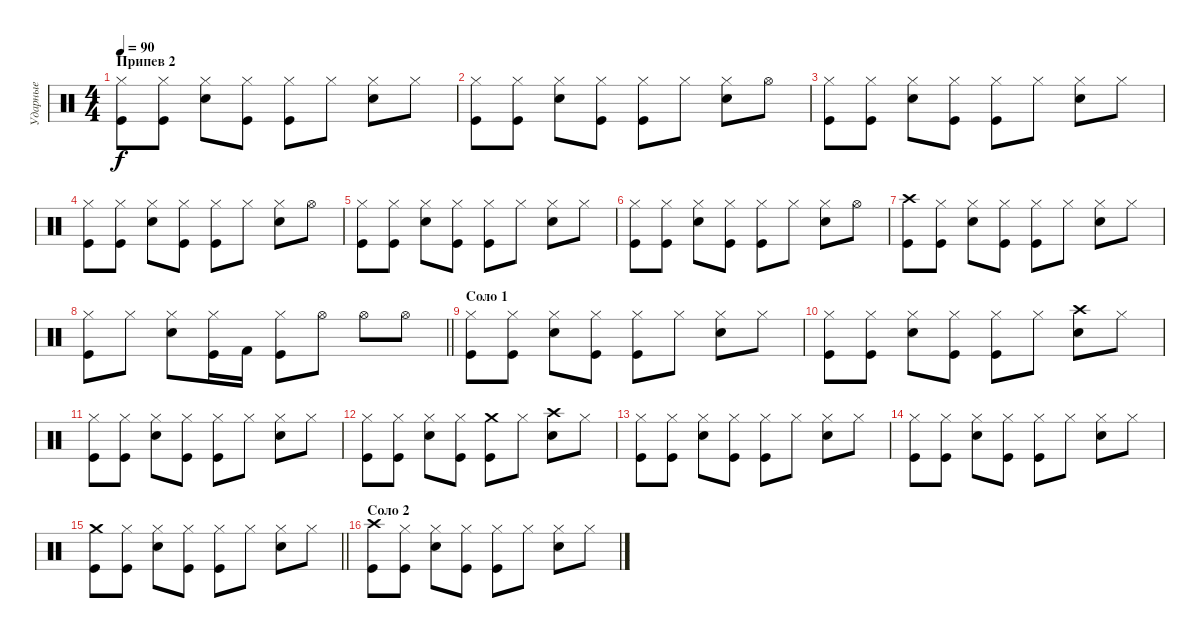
\track ("Ударные" "Ударные") {instrument percussion}
\staff {score}
\articulation defaults
\ts (4 4)
\section ("" "Припев 2")
\tempo 90
\clef neutral
\ks c
("Hi-Hat (closed)" "Kick (hit)").8{dy f} ("Hi-Hat (closed)" "Kick (hit)").8 ("Hi-Hat (closed)" "Snare (hit) 2").8 ("Hi-Hat (closed)" "Kick (hit)").8 ("Hi-Hat (closed)" "Kick (hit)").8 "Hi-Hat (closed)".8 ("Hi-Hat (closed)" "Snare (hit) 2").8 "Hi-Hat (closed)".8 |
("Hi-Hat (closed)" "Kick (hit)").8 ("Hi-Hat (closed)" "Kick (hit)").8 ("Hi-Hat (closed)" "Snare (hit) 2").8 ("Hi-Hat (closed)" "Kick (hit)").8 ("Hi-Hat (closed)" "Kick (hit)").8 "Hi-Hat (closed)".8 ("Hi-Hat (closed)" "Snare (hit) 2").8 "Hi-Hat (open)".8 |
("Hi-Hat (closed)" "Kick (hit)").8 ("Hi-Hat (closed)" "Kick (hit)").8 ("Hi-Hat (closed)" "Snare (hit) 2").8 ("Hi-Hat (closed)" "Kick (hit)").8 ("Hi-Hat (closed)" "Kick (hit)").8 "Hi-Hat (closed)".8 ("Hi-Hat (closed)" "Snare (hit) 2").8 "Hi-Hat (closed)".8 |
("Hi-Hat (closed)" "Kick (hit)").8 ("Hi-Hat (closed)" "Kick (hit)").8 ("Hi-Hat (closed)" "Snare (hit) 2").8 ("Hi-Hat (closed)" "Kick (hit)").8 ("Hi-Hat (closed)" "Kick (hit)").8 "Hi-Hat (closed)".8 ("Hi-Hat (closed)" "Snare (hit) 2").8 "Hi-Hat (open)".8 |
("Hi-Hat (closed)" "Kick (hit)").8 ("Hi-Hat (closed)" "Kick (hit)").8 ("Hi-Hat (closed)" "Snare (hit) 2").8 ("Hi-Hat (closed)" "Kick (hit)").8 ("Hi-Hat (closed)" "Kick (hit)").8 "Hi-Hat (closed)".8 ("Hi-Hat (closed)" "Snare (hit) 2").8 "Hi-Hat (closed)".8 |
("Hi-Hat (closed)" "Kick (hit)").8 ("Hi-Hat (closed)" "Kick (hit)").8 ("Hi-Hat (closed)" "Snare (hit) 2").8 ("Hi-Hat (closed)" "Kick (hit)").8 ("Hi-Hat (closed)" "Kick (hit)").8 "Hi-Hat (closed)".8 ("Hi-Hat (closed)" "Snare (hit) 2").8 "Hi-Hat (open)".8 |
("Crash high (hit)" "Kick (hit)").8 ("Hi-Hat (closed)" "Kick (hit)").8 ("Hi-Hat (closed)" "Snare (hit) 2").8 ("Hi-Hat (closed)" "Kick (hit)").8 ("Hi-Hat (closed)" "Kick (hit)").8 "Hi-Hat (closed)".8 ("Hi-Hat (closed)" "Snare (hit) 2").8 "Hi-Hat (closed)".8 |
\barLineRight lightlight
("Kick (hit)" "Hi-Hat (closed)").8 "Hi-Hat (closed)".8 ("Snare (hit) 2" "Hi-Hat (closed)").8 ("Kick (hit)" "Hi-Hat (closed)").16 "Kick (hit) 2".16 ("Kick (hit)" "Hi-Hat (closed)").8 "Hi-Hat (open)".8 "Hi-Hat (open)".8 "Hi-Hat (open)".8 |
\section ("" "Соло 1")
("Hi-Hat (closed)" "Kick (hit)").8 ("Hi-Hat (closed)" "Kick (hit)").8 ("Hi-Hat (closed)" "Snare (hit) 2").8 ("Hi-Hat (closed)" "Kick (hit)").8 ("Hi-Hat (closed)" "Kick (hit)").8 "Hi-Hat (closed)".8 ("Hi-Hat (closed)" "Snare (hit) 2").8 "Hi-Hat (closed)".8 |
("Hi-Hat (closed)" "Kick (hit)").8 ("Hi-Hat (closed)" "Kick (hit)").8 ("Hi-Hat (closed)" "Snare (hit) 2").8 ("Hi-Hat (closed)" "Kick (hit)").8 ("Hi-Hat (closed)" "Kick (hit)").8 "Hi-Hat (closed)".8 ("Crash high (hit)" "Snare (hit) 2").8 "Hi-Hat (closed)".8 |
("Hi-Hat (closed)" "Kick (hit)").8 ("Hi-Hat (closed)" "Kick (hit)").8 ("Hi-Hat (closed)" "Snare (hit) 2").8 ("Hi-Hat (closed)" "Kick (hit)").8 ("Hi-Hat (closed)" "Kick (hit)").8 "Hi-Hat (closed)".8 ("Hi-Hat (closed)" "Snare (hit) 2").8 "Hi-Hat (closed)".8 |
("Hi-Hat (closed)" "Kick (hit)").8 ("Hi-Hat (closed)" "Kick (hit)").8 ("Hi-Hat (closed)" "Snare (hit) 2").8 ("Hi-Hat (closed)" "Kick (hit)").8 ("Crash medium (hit)" "Kick (hit)").8 "Hi-Hat (closed)".8 ("Crash high (hit)" "Snare (hit) 2").8 "Hi-Hat (closed)".8 |
("Hi-Hat (closed)" "Kick (hit)").8 ("Hi-Hat (closed)" "Kick (hit)").8 ("Hi-Hat (closed)" "Snare (hit) 2").8 ("Hi-Hat (closed)" "Kick (hit)").8 ("Hi-Hat (closed)" "Kick (hit)").8 "Hi-Hat (closed)".8 ("Hi-Hat (closed)" "Snare (hit) 2").8 "Hi-Hat (closed)".8 |
("Hi-Hat (closed)" "Kick (hit)").8 ("Hi-Hat (closed)" "Kick (hit)").8 ("Hi-Hat (closed)" "Snare (hit) 2").8 ("Hi-Hat (closed)" "Kick (hit)").8 ("Hi-Hat (closed)" "Kick (hit)").8 "Hi-Hat (closed)".8 ("Hi-Hat (closed)" "Snare (hit) 2").8 "Hi-Hat (closed)".8 |
\barLineRight lightlight
("Crash medium (hit)" "Kick (hit)").8 ("Hi-Hat (closed)" "Kick (hit)").8 ("Hi-Hat (closed)" "Snare (hit) 2").8 ("Hi-Hat (closed)" "Kick (hit)").8 ("Hi-Hat (closed)" "Kick (hit)").8 "Hi-Hat (closed)".8 ("Hi-Hat (closed)" "Snare (hit) 2").8 "Hi-Hat (closed)".8 |
\section ("" "Соло 2")
("Crash high (hit)" "Kick (hit)").8 ("Hi-Hat (closed)" "Kick (hit)").8 ("Hi-Hat (closed)" "Snare (hit) 2").8 ("Hi-Hat (closed)" "Kick (hit)").8 ("Hi-Hat (closed)" "Kick (hit)").8 "Hi-Hat (closed)".8 ("Hi-Hat (closed)" "Snare (hit) 2").8 "Hi-Hat (closed)".8
